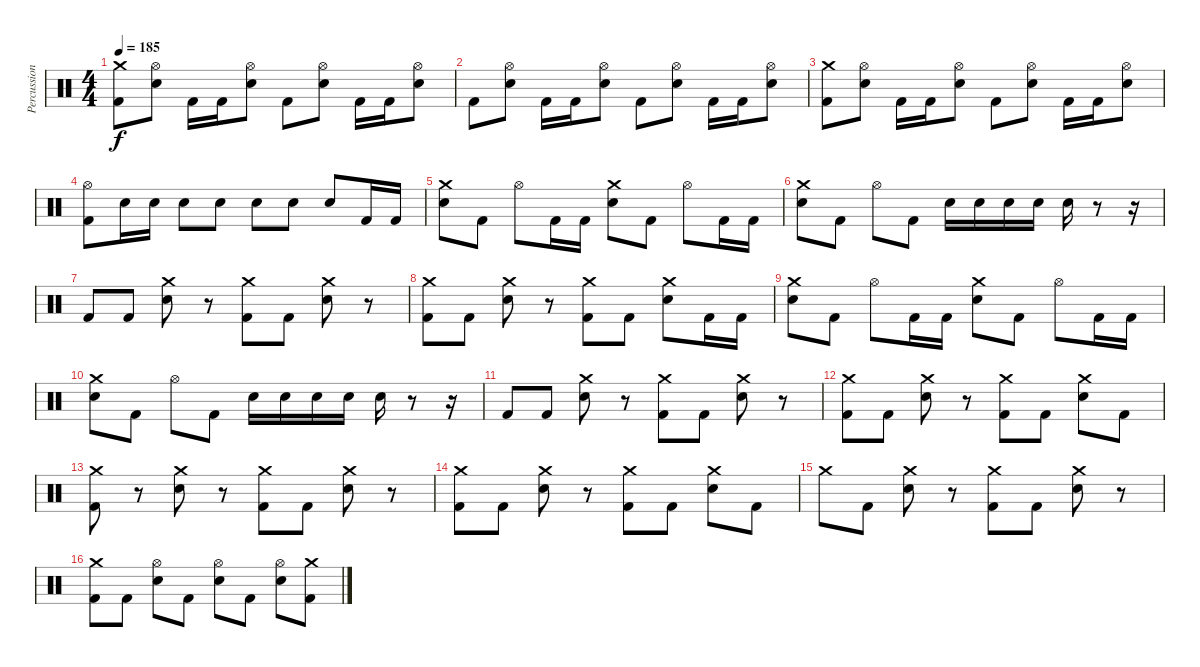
\track ("Percussion" "Percussion") {instrument percussion}
\staff {score}
\articulation defaults
\ts (4 4)
\tempo 185
\clef neutral
\ks c
("Crash medium (hit)" "Kick (hit) 2").8{dy f} ("Hi-Hat (open)" "Snare (hit) 2").8 "Kick (hit) 2".16 "Kick (hit) 2".16 ("Hi-Hat (open)" "Snare (hit) 2").8 "Kick (hit) 2".8 ("Hi-Hat (open)" "Snare (hit) 2").8 "Kick (hit) 2".16 "Kick (hit) 2".16 ("Hi-Hat (open)" "Snare (hit) 2").8 |
"Kick (hit) 2".8 ("Hi-Hat (open)" "Snare (hit) 2").8 "Kick (hit) 2".16 "Kick (hit) 2".16 ("Hi-Hat (open)" "Snare (hit) 2").8 "Kick (hit) 2".8 ("Hi-Hat (open)" "Snare (hit) 2").8 "Kick (hit) 2".16 "Kick (hit) 2".16 ("Hi-Hat (open)" "Snare (hit) 2").8 |
("Crash medium (hit)" "Kick (hit) 2").8 ("Hi-Hat (open)" "Snare (hit) 2").8 "Kick (hit) 2".16 "Kick (hit) 2".16 ("Hi-Hat (open)" "Snare (hit) 2").8 "Kick (hit) 2".8 ("Hi-Hat (open)" "Snare (hit) 2").8 "Kick (hit) 2".16 "Kick (hit) 2".16 ("Hi-Hat (open)" "Snare (hit) 2").8 |
("Hi-Hat (open)" "Kick (hit) 2").8 "Snare (hit) 2".16 "Snare (hit) 2".16 "Snare (hit) 2".8 "Snare (hit) 2".8 "Snare (hit) 2".8 "Snare (hit) 2".8 "Snare (hit) 2".8 "Kick (hit) 2".16 "Kick (hit) 2".16 |
("Crash medium (hit)" "Snare (hit) 2").8 "Kick (hit) 2".8 "Hi-Hat (open)".8 "Kick (hit) 2".16 "Kick (hit) 2".16 ("Crash medium (hit)" "Snare (hit) 2").8 "Kick (hit) 2".8 "Hi-Hat (open)".8 "Kick (hit) 2".16 "Kick (hit) 2".16 |
("Crash medium (hit)" "Snare (hit) 2").8 "Kick (hit) 2".8 "Hi-Hat (open)".8 "Kick (hit) 2".8 "Snare (hit) 2".16 "Snare (hit) 2".16 "Snare (hit) 2".16 "Snare (hit) 2".16 "Snare (hit) 2".16 r.8 r.16 |
"Kick (hit) 2".8 "Kick (hit) 2".8 ("Crash medium (hit)" "Snare (hit) 2").8 r.8 ("Crash medium (hit)" "Kick (hit) 2").8 "Kick (hit) 2".8 ("Crash medium (hit)" "Snare (hit) 2").8 r.8 |
("Crash medium (hit)" "Kick (hit) 2").8 "Kick (hit) 2".8 ("Crash medium (hit)" "Snare (hit) 2").8 r.8 ("Crash medium (hit)" "Kick (hit) 2").8 "Kick (hit) 2".8 ("Crash medium (hit)" "Snare (hit) 2").8 "Kick (hit) 2".16 "Kick (hit) 2".16 |
("Crash medium (hit)" "Snare (hit) 2").8 "Kick (hit) 2".8 "Hi-Hat (open)".8 "Kick (hit) 2".16 "Kick (hit) 2".16 ("Crash medium (hit)" "Snare (hit) 2").8 "Kick (hit) 2".8 "Hi-Hat (open)".8 "Kick (hit) 2".16 "Kick (hit) 2".16 |
("Crash medium (hit)" "Snare (hit) 2").8 "Kick (hit) 2".8 "Hi-Hat (open)".8 "Kick (hit) 2".8 "Snare (hit) 2".16 "Snare (hit) 2".16 "Snare (hit) 2".16 "Snare (hit) 2".16 "Snare (hit) 2".16 r.8 r.16 |
"Kick (hit) 2".8 "Kick (hit) 2".8 ("Crash medium (hit)" "Snare (hit) 2").8 r.8 ("Crash medium (hit)" "Kick (hit) 2").8 "Kick (hit) 2".8 ("Crash medium (hit)" "Snare (hit) 2").8 r.8 |
("Crash medium (hit)" "Kick (hit) 2").8 "Kick (hit) 2".8 ("Crash medium (hit)" "Snare (hit) 2").8 r.8 ("Crash medium (hit)" "Kick (hit) 2").8 "Kick (hit) 2".8 ("Crash medium (hit)" "Snare (hit) 2").8 "Kick (hit) 2".8 |
("Crash medium (hit)" "Kick (hit) 2").8 r.8 ("Crash medium (hit)" "Snare (hit) 2").8 r.8 ("Crash medium (hit)" "Kick (hit) 2").8 "Kick (hit) 2".8 ("Crash medium (hit)" "Snare (hit) 2").8 r.8 |
("Crash medium (hit)" "Kick (hit) 2").8 "Kick (hit) 2".8 ("Crash medium (hit)" "Snare (hit) 2").8 r.8 ("Crash medium (hit)" "Kick (hit) 2").8 "Kick (hit) 2".8 ("Crash medium (hit)" "Snare (hit) 2").8 "Kick (hit) 2".8 |
"Crash medium (hit)".8 "Kick (hit) 2".8 ("Crash medium (hit)" "Snare (hit) 2").8 r.8 ("Crash medium (hit)" "Kick (hit) 2").8 "Kick (hit) 2".8 ("Crash medium (hit)" "Snare (hit) 2").8 r.8 |
("Crash medium (hit)" "Kick (hit) 2").8 "Kick (hit) 2".8 ("Hi-Hat (open)" "Snare (hit) 2").8 "Kick (hit) 2".8 ("Hi-Hat (open)" "Snare (hit) 2").8 "Kick (hit) 2".8 ("Hi-Hat (open)" "Snare (hit) 2").8 ("Crash medium (hit)" "Kick (hit) 2").8
